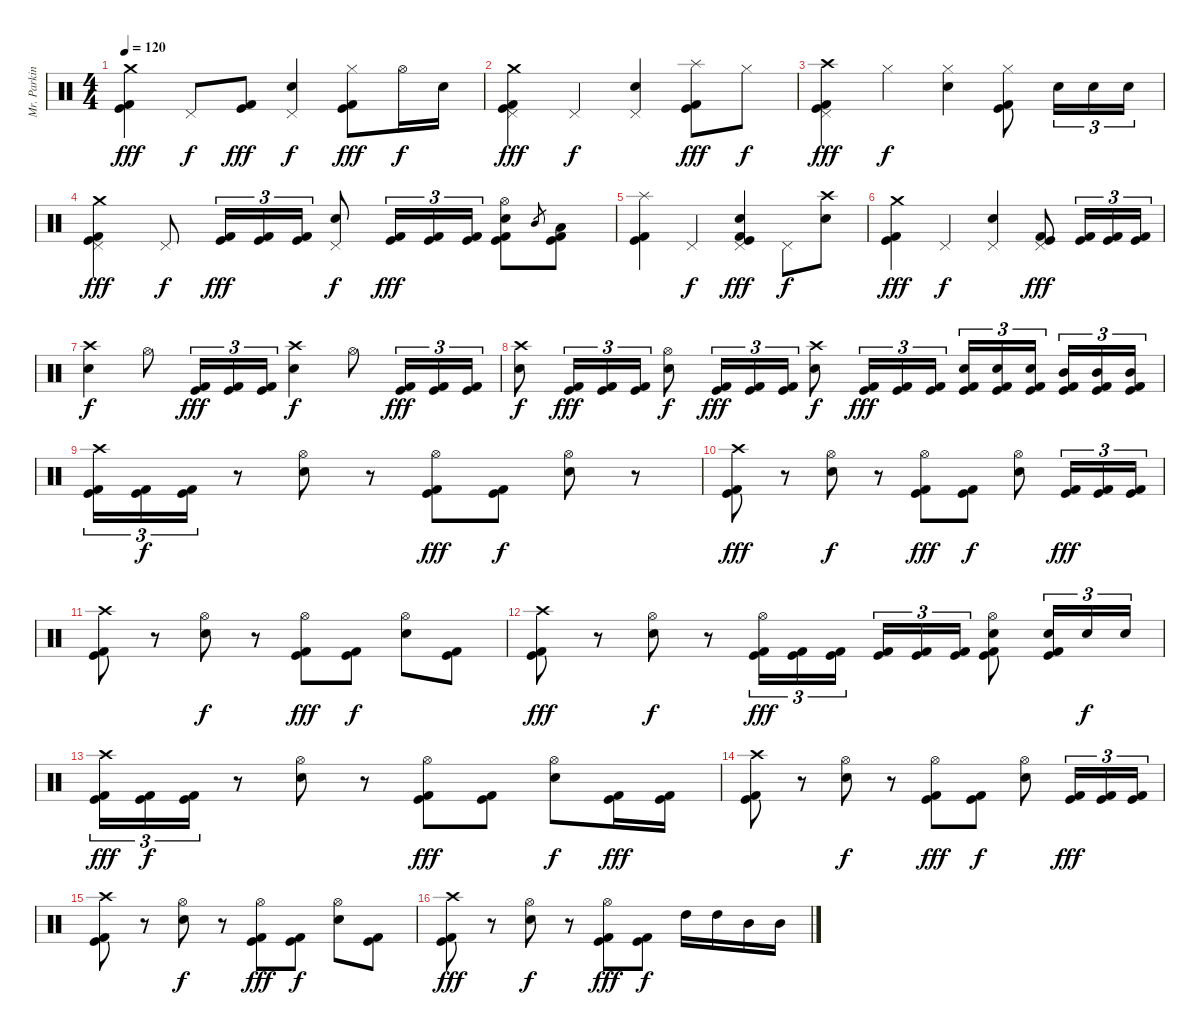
\track ("Mr. Parkinson" "Mr. Parkin") {instrument percussion}
\staff {score}
\articulation defaults
\ts (4 4)
\tempo 120
\clef neutral
\ks c
("Crash medium (hit)" "Kick (hit)" "Kick (hit) 2").4{dy fff} "Pedal Hi-Hat (hit)".8{dy f} ("Kick (hit)" "Kick (hit) 2").8{dy fff} ("Pedal Hi-Hat (hit)" "Electric Snare (hit)").4{dy f} ("Hi-Hat (closed)" "Kick (hit)" "Kick (hit) 2").8{dy fff} "Hi-Hat (open)".16{dy f} "Electric Snare (hit)".16 |
("Pedal Hi-Hat (hit)" "Crash medium (hit)" "Kick (hit)" "Kick (hit) 2").4{dy fff} "Pedal Hi-Hat (hit)".4{dy f} ("Pedal Hi-Hat (hit)" "Electric Snare (hit)").4 ("Splash (hit)" "Kick (hit)" "Kick (hit) 2").8{dy fff} "Hi-Hat (closed)".8{dy f} |
("Crash high (hit)" "Pedal Hi-Hat (hit)" "Kick (hit)" "Kick (hit) 2").4{dy fff} "Hi-Hat (closed)".4{dy f} ("Hi-Hat (closed)" "Electric Snare (hit)").4 ("Hi-Hat (closed)" "Kick (hit)" "Kick (hit) 2").8 "Electric Snare (hit)".16{tu (3 2)} "Electric Snare (hit)".16{tu (3 2)} "Electric Snare (hit)".16{tu (3 2)} |
("Pedal Hi-Hat (hit)" "Crash medium (hit)" "Kick (hit)" "Kick (hit) 2").4{dy fff} "Pedal Hi-Hat (hit)".8{dy f} ("Kick (hit)" "Kick (hit) 2").16{tu (3 2) dy fff} ("Kick (hit)" "Kick (hit) 2").16{tu (3 2)} ("Kick (hit)" "Kick (hit) 2").16{tu (3 2)} ("Pedal Hi-Hat (hit)" "Electric Snare (hit)").8{dy f} ("Kick (hit)" "Kick (hit) 2").16{tu (3 2) dy fff} ("Kick (hit)" "Kick (hit) 2").16{tu (3 2)} ("Kick (hit)" "Kick (hit) 2").16{tu (3 2)} ("Hi-Hat (open)" "Electric Snare (hit)" "Kick (hit)" "Kick (hit) 2").8 "Mid Tom (hit)".8{gr} ("Low Tom (hit)" "Kick (hit)" "Kick (hit) 2").8 |
("Splash (hit)" "Kick (hit)" "Kick (hit) 2").4 "Pedal Hi-Hat (hit)".4{dy f} ("Pedal Hi-Hat (hit)" "Electric Snare (hit)" "Kick (hit)" "Kick (hit) 2").4{dy fff} "Pedal Hi-Hat (hit)".8{dy f} ("Crash high (hit)" "Electric Snare (hit)").8 |
("Crash medium (hit)" "Kick (hit) 2" "Kick (hit)").4{dy fff} "Pedal Hi-Hat (hit)".4{dy f} ("Pedal Hi-Hat (hit)" "Electric Snare (hit)").4 ("Pedal Hi-Hat (hit)" "Kick (hit)" "Kick (hit) 2").8{dy fff} ("Kick (hit)" "Kick (hit) 2").16{tu (3 2)} ("Kick (hit)" "Kick (hit) 2").16{tu (3 2)} ("Kick (hit)" "Kick (hit) 2").16{tu (3 2)} |
("Crash high (hit)" "Electric Snare (hit)").4{dy f} "Hi-Hat (open)".8 ("Kick (hit) 2" "Kick (hit)").16{tu (3 2) dy fff} ("Kick (hit) 2" "Kick (hit)").16{tu (3 2)} ("Kick (hit) 2" "Kick (hit)").16{tu (3 2)} ("Crash high (hit)" "Electric Snare (hit)").4{dy f} "Hi-Hat (open)".8 ("Kick (hit) 2" "Kick (hit)").16{tu (3 2) dy fff} ("Kick (hit) 2" "Kick (hit)").16{tu (3 2)} ("Kick (hit) 2" "Kick (hit)").16{tu (3 2)} |
("Crash high (hit)" "Electric Snare (hit)").8{dy f} ("Kick (hit)" "Kick (hit) 2").16{tu (3 2) dy fff} ("Kick (hit)" "Kick (hit) 2").16{tu (3 2)} ("Kick (hit)" "Kick (hit) 2").16{tu (3 2)} ("Hi-Hat (open)" "Electric Snare (hit)").8{dy f} ("Kick (hit)" "Kick (hit) 2").16{tu (3 2) dy fff} ("Kick (hit)" "Kick (hit) 2").16{tu (3 2)} ("Kick (hit)" "Kick (hit) 2").16{tu (3 2)} ("Crash high (hit)" "Electric Snare (hit)").8{dy f} ("Kick (hit)" "Kick (hit) 2").16{tu (3 2) dy fff} ("Kick (hit)" "Kick (hit) 2").16{tu (3 2)} ("Kick (hit)" "Kick (hit) 2").16{tu (3 2)} ("Electric Snare (hit)" "Kick (hit) 2" "Kick (hit)").16{tu (3 2)} ("Electric Snare (hit)" "Kick (hit) 2" "Kick (hit)").16{tu (3 2)} ("Electric Snare (hit)" "Kick (hit) 2" "Kick (hit)").16{tu (3 2)} ("Mid Tom (hit)" "Kick (hit) 2" "Kick (hit)").16{tu (3 2)} ("Mid Tom (hit)" "Kick (hit) 2" "Kick (hit)").16{tu (3 2)} ("Mid Tom (hit)" "Kick (hit) 2" "Kick (hit)").16{tu (3 2)} |
("Crash high (hit)" "Kick (hit)" "Kick (hit) 2").16{tu (3 2)} ("Kick (hit)" "Kick (hit) 2").16{tu (3 2) dy f} ("Kick (hit)" "Kick (hit) 2").16{tu (3 2)} r.8 ("Hi-Hat (open)" "Electric Snare (hit)").8 r.8 ("Hi-Hat (open)" "Kick (hit) 2" "Kick (hit)").8{dy fff} ("Kick (hit)" "Kick (hit) 2").8{dy f} ("Hi-Hat (open)" "Electric Snare (hit)").8 r.8 |
("Crash high (hit)" "Kick (hit)" "Kick (hit) 2").8{dy fff} r.8 ("Hi-Hat (open)" "Electric Snare (hit)").8{dy f} r.8 ("Hi-Hat (open)" "Kick (hit) 2" "Kick (hit)").8{dy fff} ("Kick (hit)" "Kick (hit) 2").8{dy f} ("Hi-Hat (open)" "Electric Snare (hit)").8 ("Kick (hit)" "Kick (hit) 2").16{tu (3 2) dy fff} ("Kick (hit)" "Kick (hit) 2").16{tu (3 2)} ("Kick (hit)" "Kick (hit) 2").16{tu (3 2)} |
("Crash high (hit)" "Kick (hit)" "Kick (hit) 2").8 r.8 ("Hi-Hat (open)" "Electric Snare (hit)").8{dy f} r.8 ("Hi-Hat (open)" "Kick (hit) 2" "Kick (hit)").8{dy fff} ("Kick (hit)" "Kick (hit) 2").8{dy f} ("Hi-Hat (open)" "Electric Snare (hit)").8 ("Kick (hit)" "Kick (hit) 2").8 |
("Crash high (hit)" "Kick (hit)" "Kick (hit) 2").8{dy fff} r.8 ("Hi-Hat (open)" "Electric Snare (hit)").8{dy f} r.8 ("Hi-Hat (open)" "Kick (hit) 2" "Kick (hit)").16{tu (3 2) dy fff} ("Kick (hit)" "Kick (hit) 2").16{tu (3 2)} ("Kick (hit)" "Kick (hit) 2").16{tu (3 2)} ("Kick (hit)" "Kick (hit) 2").16{tu (3 2)} ("Kick (hit)" "Kick (hit) 2").16{tu (3 2)} ("Kick (hit)" "Kick (hit) 2").16{tu (3 2)} ("Hi-Hat (open)" "Electric Snare (hit)" "Kick (hit)" "Kick (hit) 2").8 ("Electric Snare (hit)" "Kick (hit)" "Kick (hit) 2").16{tu (3 2)} "Electric Snare (hit)".16{tu (3 2) dy f} "Electric Snare (hit)".16{tu (3 2)} |
("Crash high (hit)" "Kick (hit)" "Kick (hit) 2").16{tu (3 2) dy fff} ("Kick (hit)" "Kick (hit) 2").16{tu (3 2) dy f} ("Kick (hit)" "Kick (hit) 2").16{tu (3 2)} r.8 ("Hi-Hat (open)" "Electric Snare (hit)").8 r.8 ("Hi-Hat (open)" "Kick (hit) 2" "Kick (hit)").8{dy fff} ("Kick (hit)" "Kick (hit) 2").8 ("Hi-Hat (open)" "Electric Snare (hit)").8{dy f} ("Kick (hit)" "Kick (hit) 2").16{dy fff} ("Kick (hit)" "Kick (hit) 2").16 |
("Crash high (hit)" "Kick (hit)" "Kick (hit) 2").8 r.8 ("Hi-Hat (open)" "Electric Snare (hit)").8{dy f} r.8 ("Hi-Hat (open)" "Kick (hit) 2" "Kick (hit)").8{dy fff} ("Kick (hit)" "Kick (hit) 2").8{dy f} ("Hi-Hat (open)" "Electric Snare (hit)").8 ("Kick (hit)" "Kick (hit) 2").16{tu (3 2) dy fff} ("Kick (hit)" "Kick (hit) 2").16{tu (3 2)} ("Kick (hit)" "Kick (hit) 2").16{tu (3 2)} |
("Crash high (hit)" "Kick (hit)" "Kick (hit) 2").8 r.8 ("Hi-Hat (open)" "Electric Snare (hit)").8{dy f} r.8 ("Hi-Hat (open)" "Kick (hit) 2" "Kick (hit)").8{dy fff} ("Kick (hit)" "Kick (hit) 2").8{dy f} ("Hi-Hat (open)" "Electric Snare (hit)").8 ("Kick (hit)" "Kick (hit) 2").8 |
("Crash high (hit)" "Kick (hit)" "Kick (hit) 2").8{dy fff} r.8 ("Hi-Hat (open)" "Electric Snare (hit)").8{dy f} r.8 ("Hi-Hat (open)" "Kick (hit) 2" "Kick (hit)").8{dy fff} ("Kick (hit)" "Kick (hit) 2").8{dy f} "High Tom (hit)".16 "High Tom (hit)".16 "Mid Tom (hit)".16 "Mid Tom (hit)".16
